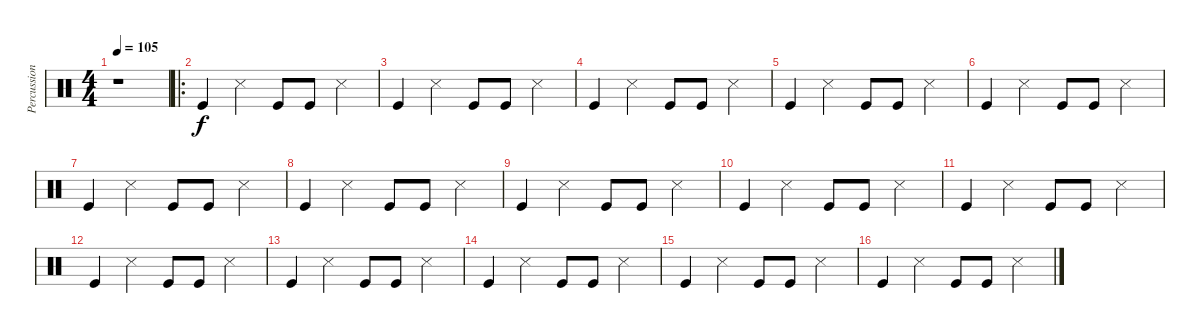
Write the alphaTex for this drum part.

\track ("Percussions" "Percussion") {instrument percussion}
\staff {score}
\articulation defaults
\ts (4 4)
\tempo 105
\clef neutral
\ks c
r.1{dy f} |
\ro "Kick (hit)".4 "Metronome (hit)".4 "Kick (hit)".8 "Kick (hit)".8 "Metronome (hit)".4
|
"Kick (hit)".4 "Metronome (hit)".4 "Kick (hit)".8 "Kick (hit)".8 "Metronome (hit)".4 |
"Kick (hit)".4 "Metronome (hit)".4 "Kick (hit)".8 "Kick (hit)".8 "Metronome (hit)".4 |
"Kick (hit)".4 "Metronome (hit)".4 "Kick (hit)".8 "Kick (hit)".8 "Metronome (hit)".4 |
"Kick (hit)".4 "Metronome (hit)".4 "Kick (hit)".8 "Kick (hit)".8 "Metronome (hit)".4 |
"Kick (hit)".4 "Metronome (hit)".4 "Kick (hit)".8 "Kick (hit)".8 "Metronome (hit)".4 |
"Kick (hit)".4 "Metronome (hit)".4 "Kick (hit)".8 "Kick (hit)".8 "Metronome (hit)".4 |
"Kick (hit)".4 "Metronome (hit)".4 "Kick (hit)".8 "Kick (hit)".8 "Metronome (hit)".4 |
"Kick (hit)".4 "Metronome (hit)".4 "Kick (hit)".8 "Kick (hit)".8 "Metronome (hit)".4 |
"Kick (hit)".4 "Metronome (hit)".4 "Kick (hit)".8 "Kick (hit)".8 "Metronome (hit)".4 |
"Kick (hit)".4 "Metronome (hit)".4 "Kick (hit)".8 "Kick (hit)".8 "Metronome (hit)".4 |
"Kick (hit)".4 "Metronome (hit)".4 "Kick (hit)".8 "Kick (hit)".8 "Metronome (hit)".4 |
"Kick (hit)".4 "Metronome (hit)".4 "Kick (hit)".8 "Kick (hit)".8 "Metronome (hit)".4 |
"Kick (hit)".4 "Metronome (hit)".4 "Kick (hit)".8 "Kick (hit)".8 "Metronome (hit)".4 |
"Kick (hit)".4 "Metronome (hit)".4 "Kick (hit)".8 "Kick (hit)".8 "Metronome (hit)".4
